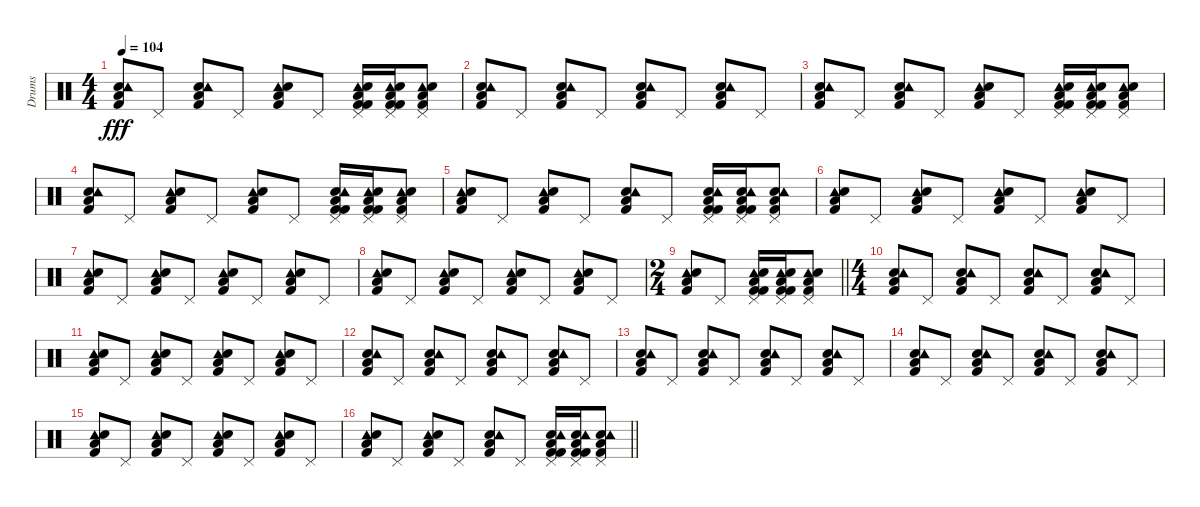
\track ("Drums" "Drums") {instrument percussion}
\staff {score}
\articulation defaults
\ts (4 4)
\tempo 104
\clef neutral
\ks c
("Low Floor Tom (hit)" "Kick (hit) 2" "Snare (hit) 2" "Tambourine (hit)").8{dy fff} "Pedal Hi-Hat (hit)".8 ("Snare (hit) 2" "Low Floor Tom (hit)" "Kick (hit) 2" "Tambourine (hit)").8 "Pedal Hi-Hat (hit)".8 ("Tambourine (hit)" "Snare (hit) 2" "Kick (hit) 2" "Low Floor Tom (hit)").8 "Pedal Hi-Hat (hit)".8 ("Tambourine (hit)" "Pedal Hi-Hat (hit)" "Low Floor Tom (hit)" "Snare (hit) 2" "Kick (hit) 2" "Kick (hit) 2").16 ("Tambourine (hit)" "Kick (hit) 2" "Kick (hit) 2" "Snare (hit) 2" "Low Floor Tom (hit)" "Pedal Hi-Hat (hit)").16 ("Tambourine (hit)" "Snare (hit) 2" "Kick (hit) 2" "Low Floor Tom (hit)" "Pedal Hi-Hat (hit)").8 |
("Snare (hit) 2" "Kick (hit) 2" "Low Floor Tom (hit)" "Tambourine (hit)").8 "Pedal Hi-Hat (hit)".8 ("Kick (hit) 2" "Snare (hit) 2" "Low Floor Tom (hit)" "Tambourine (hit)").8 "Pedal Hi-Hat (hit)".8 ("Kick (hit) 2" "Snare (hit) 2" "Low Floor Tom (hit)" "Tambourine (hit)").8 "Pedal Hi-Hat (hit)".8 ("Kick (hit) 2" "Snare (hit) 2" "Low Floor Tom (hit)" "Tambourine (hit)").8 "Pedal Hi-Hat (hit)".8 |
("Low Floor Tom (hit)" "Kick (hit) 2" "Snare (hit) 2" "Tambourine (hit)").8 "Pedal Hi-Hat (hit)".8 ("Snare (hit) 2" "Low Floor Tom (hit)" "Kick (hit) 2" "Tambourine (hit)").8 "Pedal Hi-Hat (hit)".8 ("Tambourine (hit)" "Snare (hit) 2" "Kick (hit) 2" "Low Floor Tom (hit)").8 "Pedal Hi-Hat (hit)".8 ("Tambourine (hit)" "Pedal Hi-Hat (hit)" "Low Floor Tom (hit)" "Snare (hit) 2" "Kick (hit) 2" "Kick (hit) 2").16 ("Tambourine (hit)" "Kick (hit) 2" "Kick (hit) 2" "Snare (hit) 2" "Low Floor Tom (hit)" "Pedal Hi-Hat (hit)").16 ("Tambourine (hit)" "Snare (hit) 2" "Kick (hit) 2" "Low Floor Tom (hit)" "Pedal Hi-Hat (hit)").8 |
("Low Floor Tom (hit)" "Kick (hit) 2" "Snare (hit) 2" "Tambourine (hit)").8 "Pedal Hi-Hat (hit)".8 ("Low Floor Tom (hit)" "Kick (hit) 2" "Tambourine (hit)" "Snare (hit) 2").8 "Pedal Hi-Hat (hit)".8 ("Tambourine (hit)" "Snare (hit) 2" "Kick (hit) 2" "Low Floor Tom (hit)").8 "Pedal Hi-Hat (hit)".8 ("Pedal Hi-Hat (hit)" "Low Floor Tom (hit)" "Snare (hit) 2" "Kick (hit) 2" "Kick (hit) 2" "Tambourine (hit)").16 ("Tambourine (hit)" "Kick (hit) 2" "Kick (hit) 2" "Snare (hit) 2" "Low Floor Tom (hit)" "Pedal Hi-Hat (hit)").16 ("Tambourine (hit)" "Snare (hit) 2" "Kick (hit) 2" "Low Floor Tom (hit)" "Pedal Hi-Hat (hit)").8 |
("Tambourine (hit)" "Snare (hit) 2" "Kick (hit) 2" "Low Floor Tom (hit)").8 "Pedal Hi-Hat (hit)".8 ("Tambourine (hit)" "Kick (hit) 2" "Low Floor Tom (hit)" "Snare (hit) 2").8 "Pedal Hi-Hat (hit)".8 ("Low Floor Tom (hit)" "Kick (hit) 2" "Snare (hit) 2" "Tambourine (hit)").8 "Pedal Hi-Hat (hit)".8 ("Kick (hit) 2" "Snare (hit) 2" "Low Floor Tom (hit)" "Pedal Hi-Hat (hit)" "Tambourine (hit)" "Kick (hit) 2").16 ("Low Floor Tom (hit)" "Snare (hit) 2" "Kick (hit) 2" "Kick (hit) 2" "Tambourine (hit)" "Pedal Hi-Hat (hit)").16 ("Pedal Hi-Hat (hit)" "Low Floor Tom (hit)" "Kick (hit) 2" "Snare (hit) 2" "Tambourine (hit)").8 |
("Tambourine (hit)" "Low Floor Tom (hit)" "Kick (hit) 2" "Snare (hit) 2").8 "Pedal Hi-Hat (hit)".8 ("Tambourine (hit)" "Low Floor Tom (hit)" "Snare (hit) 2" "Kick (hit) 2").8 "Pedal Hi-Hat (hit)".8 ("Tambourine (hit)" "Low Floor Tom (hit)" "Snare (hit) 2" "Kick (hit) 2").8 "Pedal Hi-Hat (hit)".8 ("Tambourine (hit)" "Low Floor Tom (hit)" "Snare (hit) 2" "Kick (hit) 2").8 "Pedal Hi-Hat (hit)".8 |
("Tambourine (hit)" "Low Floor Tom (hit)" "Kick (hit) 2" "Snare (hit) 2").8 "Pedal Hi-Hat (hit)".8 ("Kick (hit) 2" "Tambourine (hit)" "Low Floor Tom (hit)" "Snare (hit) 2").8 "Pedal Hi-Hat (hit)".8 ("Tambourine (hit)" "Low Floor Tom (hit)" "Snare (hit) 2" "Kick (hit) 2").8 "Pedal Hi-Hat (hit)".8 ("Tambourine (hit)" "Low Floor Tom (hit)" "Snare (hit) 2" "Kick (hit) 2").8 "Pedal Hi-Hat (hit)".8 |
("Tambourine (hit)" "Low Floor Tom (hit)" "Kick (hit) 2" "Snare (hit) 2").8 "Pedal Hi-Hat (hit)".8 ("Kick (hit) 2" "Tambourine (hit)" "Low Floor Tom (hit)" "Snare (hit) 2").8 "Pedal Hi-Hat (hit)".8 ("Tambourine (hit)" "Low Floor Tom (hit)" "Snare (hit) 2" "Kick (hit) 2").8 "Pedal Hi-Hat (hit)".8 ("Tambourine (hit)" "Low Floor Tom (hit)" "Snare (hit) 2" "Kick (hit) 2").8 "Pedal Hi-Hat (hit)".8 |
\ts (2 4)
\barLineRight lightlight
("Tambourine (hit)" "Snare (hit) 2" "Kick (hit) 2" "Low Floor Tom (hit)").8 "Pedal Hi-Hat (hit)".8 ("Kick (hit) 2" "Tambourine (hit)" "Pedal Hi-Hat (hit)" "Low Floor Tom (hit)" "Snare (hit) 2" "Kick (hit) 2").16 ("Pedal Hi-Hat (hit)" "Tambourine (hit)" "Kick (hit) 2" "Kick (hit) 2" "Snare (hit) 2" "Low Floor Tom (hit)").16 ("Tambourine (hit)" "Snare (hit) 2" "Kick (hit) 2" "Low Floor Tom (hit)" "Pedal Hi-Hat (hit)").8 |
\ts (4 4)
("Snare (hit) 2" "Kick (hit) 2" "Low Floor Tom (hit)" "Tambourine (hit)").8 "Pedal Hi-Hat (hit)".8 ("Kick (hit) 2" "Snare (hit) 2" "Low Floor Tom (hit)" "Tambourine (hit)").8 "Pedal Hi-Hat (hit)".8 ("Kick (hit) 2" "Snare (hit) 2" "Low Floor Tom (hit)" "Tambourine (hit)").8 "Pedal Hi-Hat (hit)".8 ("Kick (hit) 2" "Snare (hit) 2" "Low Floor Tom (hit)" "Tambourine (hit)").8 "Pedal Hi-Hat (hit)".8 |
("Tambourine (hit)" "Low Floor Tom (hit)" "Kick (hit) 2" "Snare (hit) 2").8 "Pedal Hi-Hat (hit)".8 ("Tambourine (hit)" "Low Floor Tom (hit)" "Snare (hit) 2" "Kick (hit) 2").8 "Pedal Hi-Hat (hit)".8 ("Tambourine (hit)" "Low Floor Tom (hit)" "Snare (hit) 2" "Kick (hit) 2").8 "Pedal Hi-Hat (hit)".8 ("Tambourine (hit)" "Low Floor Tom (hit)" "Snare (hit) 2" "Kick (hit) 2").8 "Pedal Hi-Hat (hit)".8 |
("Snare (hit) 2" "Kick (hit) 2" "Low Floor Tom (hit)" "Tambourine (hit)").8 "Pedal Hi-Hat (hit)".8 ("Kick (hit) 2" "Snare (hit) 2" "Low Floor Tom (hit)" "Tambourine (hit)").8 "Pedal Hi-Hat (hit)".8 ("Kick (hit) 2" "Snare (hit) 2" "Low Floor Tom (hit)" "Tambourine (hit)").8 "Pedal Hi-Hat (hit)".8 ("Kick (hit) 2" "Snare (hit) 2" "Low Floor Tom (hit)" "Tambourine (hit)").8 "Pedal Hi-Hat (hit)".8 |
("Snare (hit) 2" "Kick (hit) 2" "Low Floor Tom (hit)" "Tambourine (hit)").8 "Pedal Hi-Hat (hit)".8 ("Kick (hit) 2" "Snare (hit) 2" "Low Floor Tom (hit)" "Tambourine (hit)").8 "Pedal Hi-Hat (hit)".8 ("Kick (hit) 2" "Snare (hit) 2" "Low Floor Tom (hit)" "Tambourine (hit)").8 "Pedal Hi-Hat (hit)".8 ("Kick (hit) 2" "Snare (hit) 2" "Low Floor Tom (hit)" "Tambourine (hit)").8 "Pedal Hi-Hat (hit)".8 |
("Snare (hit) 2" "Kick (hit) 2" "Low Floor Tom (hit)" "Tambourine (hit)").8 "Pedal Hi-Hat (hit)".8 ("Kick (hit) 2" "Snare (hit) 2" "Low Floor Tom (hit)" "Tambourine (hit)").8 "Pedal Hi-Hat (hit)".8 ("Kick (hit) 2" "Snare (hit) 2" "Low Floor Tom (hit)" "Tambourine (hit)").8 "Pedal Hi-Hat (hit)".8 ("Kick (hit) 2" "Snare (hit) 2" "Low Floor Tom (hit)" "Tambourine (hit)").8 "Pedal Hi-Hat (hit)".8 |
("Tambourine (hit)" "Low Floor Tom (hit)" "Kick (hit) 2" "Snare (hit) 2").8 "Pedal Hi-Hat (hit)".8 ("Kick (hit) 2" "Tambourine (hit)" "Low Floor Tom (hit)" "Snare (hit) 2").8 "Pedal Hi-Hat (hit)".8 ("Tambourine (hit)" "Low Floor Tom (hit)" "Snare (hit) 2" "Kick (hit) 2").8 "Pedal Hi-Hat (hit)".8 ("Tambourine (hit)" "Low Floor Tom (hit)" "Snare (hit) 2" "Kick (hit) 2").8 "Pedal Hi-Hat (hit)".8 |
\barLineRight lightlight
("Tambourine (hit)" "Snare (hit) 2" "Kick (hit) 2" "Low Floor Tom (hit)").8 "Pedal Hi-Hat (hit)".8 ("Tambourine (hit)" "Kick (hit) 2" "Low Floor Tom (hit)" "Snare (hit) 2").8 "Pedal Hi-Hat (hit)".8 ("Low Floor Tom (hit)" "Kick (hit) 2" "Snare (hit) 2" "Tambourine (hit)").8 "Pedal Hi-Hat (hit)".8 ("Kick (hit) 2" "Kick (hit) 2" "Snare (hit) 2" "Low Floor Tom (hit)" "Pedal Hi-Hat (hit)" "Tambourine (hit)").16 ("Pedal Hi-Hat (hit)" "Low Floor Tom (hit)" "Snare (hit) 2" "Kick (hit) 2" "Kick (hit) 2" "Tambourine (hit)").16 ("Pedal Hi-Hat (hit)" "Low Floor Tom (hit)" "Kick (hit) 2" "Snare (hit) 2" "Tambourine (hit)").8
